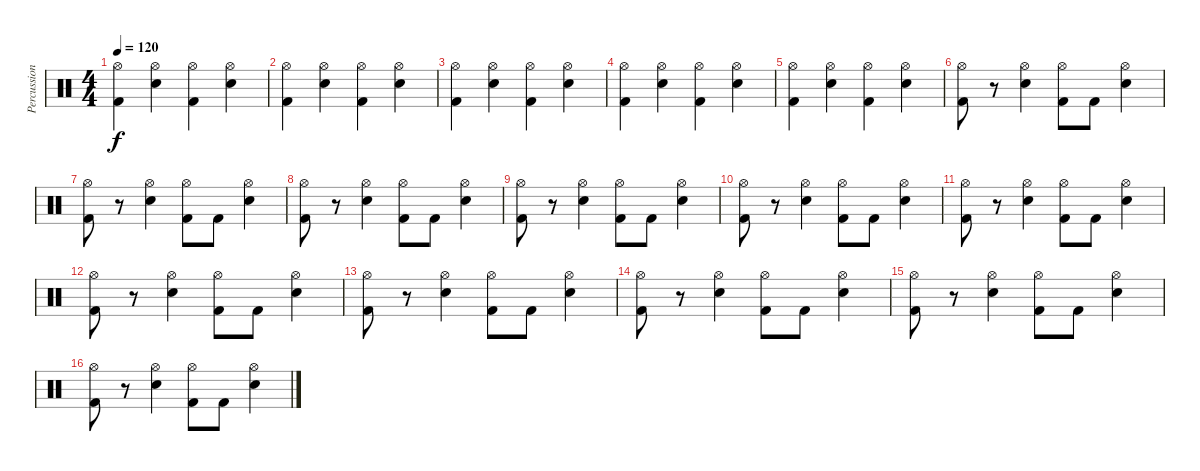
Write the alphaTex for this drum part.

\track ("Percussion" "Percussion") {instrument percussion}
\staff {score}
\articulation defaults
\ts (4 4)
\tempo 120
\clef neutral
\ks c
("Hi-Hat (open)" "Kick (hit) 2").4{dy f} ("Snare (hit) 2" "Hi-Hat (open)").4 ("Hi-Hat (open)" "Kick (hit) 2").4 ("Snare (hit) 2" "Hi-Hat (open)").4 |
("Hi-Hat (open)" "Kick (hit) 2").4 ("Snare (hit) 2" "Hi-Hat (open)").4 ("Hi-Hat (open)" "Kick (hit) 2").4 ("Snare (hit) 2" "Hi-Hat (open)").4 |
("Hi-Hat (open)" "Kick (hit) 2").4 ("Snare (hit) 2" "Hi-Hat (open)").4 ("Hi-Hat (open)" "Kick (hit) 2").4 ("Snare (hit) 2" "Hi-Hat (open)").4 |
("Hi-Hat (open)" "Kick (hit) 2").4 ("Snare (hit) 2" "Hi-Hat (open)").4 ("Hi-Hat (open)" "Kick (hit) 2").4 ("Snare (hit) 2" "Hi-Hat (open)").4 |
("Hi-Hat (open)" "Kick (hit) 2").4 ("Snare (hit) 2" "Hi-Hat (open)").4 ("Hi-Hat (open)" "Kick (hit) 2").4 ("Snare (hit) 2" "Hi-Hat (open)").4 |
("Hi-Hat (open)" "Kick (hit) 2").8 r.8 ("Hi-Hat (open)" "Snare (hit) 2").4 ("Hi-Hat (open)" "Kick (hit) 2").8 "Kick (hit) 2".8 ("Hi-Hat (open)" "Snare (hit) 2").4 |
("Hi-Hat (open)" "Kick (hit) 2").8 r.8 ("Hi-Hat (open)" "Snare (hit) 2").4 ("Hi-Hat (open)" "Kick (hit) 2").8 "Kick (hit) 2".8 ("Hi-Hat (open)" "Snare (hit) 2").4 |
("Hi-Hat (open)" "Kick (hit) 2").8 r.8 ("Hi-Hat (open)" "Snare (hit) 2").4 ("Hi-Hat (open)" "Kick (hit) 2").8 "Kick (hit) 2".8 ("Hi-Hat (open)" "Snare (hit) 2").4 |
("Hi-Hat (open)" "Kick (hit) 2").8 r.8 ("Hi-Hat (open)" "Snare (hit) 2").4 ("Hi-Hat (open)" "Kick (hit) 2").8 "Kick (hit) 2".8 ("Hi-Hat (open)" "Snare (hit) 2").4 |
("Hi-Hat (open)" "Kick (hit) 2").8 r.8 ("Hi-Hat (open)" "Snare (hit) 2").4 ("Hi-Hat (open)" "Kick (hit) 2").8 "Kick (hit) 2".8 ("Hi-Hat (open)" "Snare (hit) 2").4 |
("Hi-Hat (open)" "Kick (hit) 2").8 r.8 ("Hi-Hat (open)" "Snare (hit) 2").4 ("Hi-Hat (open)" "Kick (hit) 2").8 "Kick (hit) 2".8 ("Hi-Hat (open)" "Snare (hit) 2").4 |
("Hi-Hat (open)" "Kick (hit) 2").8 r.8 ("Hi-Hat (open)" "Snare (hit) 2").4 ("Hi-Hat (open)" "Kick (hit) 2").8 "Kick (hit) 2".8 ("Hi-Hat (open)" "Snare (hit) 2").4 |
("Hi-Hat (open)" "Kick (hit) 2").8 r.8 ("Hi-Hat (open)" "Snare (hit) 2").4 ("Hi-Hat (open)" "Kick (hit) 2").8 "Kick (hit) 2".8 ("Hi-Hat (open)" "Snare (hit) 2").4 |
("Hi-Hat (open)" "Kick (hit) 2").8 r.8 ("Hi-Hat (open)" "Snare (hit) 2").4 ("Hi-Hat (open)" "Kick (hit) 2").8 "Kick (hit) 2".8 ("Hi-Hat (open)" "Snare (hit) 2").4 |
("Hi-Hat (open)" "Kick (hit) 2").8 r.8 ("Hi-Hat (open)" "Snare (hit) 2").4 ("Hi-Hat (open)" "Kick (hit) 2").8 "Kick (hit) 2".8 ("Hi-Hat (open)" "Snare (hit) 2").4 |
("Hi-Hat (open)" "Kick (hit) 2").8 r.8 ("Hi-Hat (open)" "Snare (hit) 2").4 ("Hi-Hat (open)" "Kick (hit) 2").8 "Kick (hit) 2".8 ("Hi-Hat (open)" "Snare (hit) 2").4
